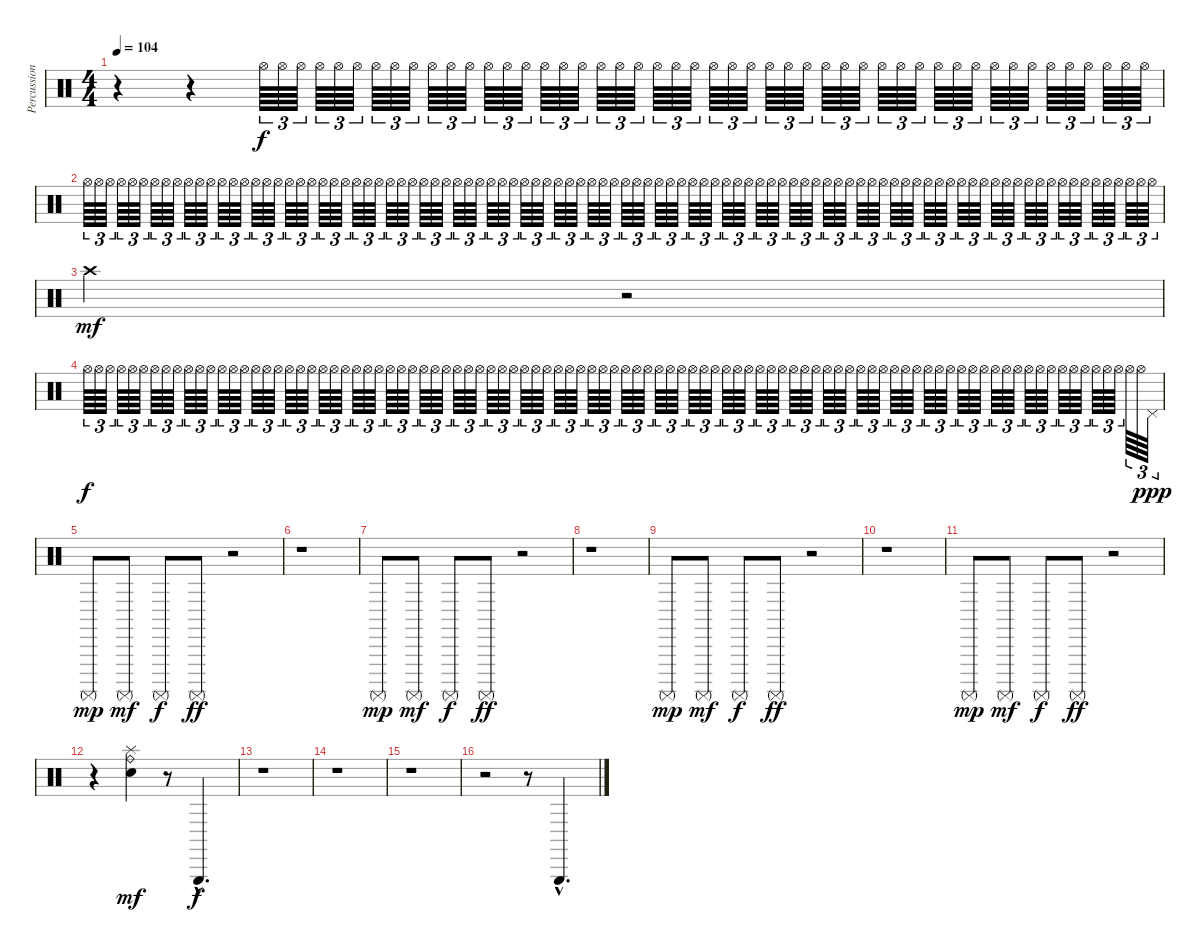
\track ("Percussion" "Percussion") {instrument percussion}
\staff {score}
\articulation defaults
\ts (4 4)
\tempo 104
\clef neutral
\ks c
r.4{dy f} r.4{volume 0} "Hi-Hat (open)".64{tu (3 2) volume 6} "Hi-Hat (open)".64{tu (3 2)} "Hi-Hat (open)".64{tu (3 2)} "Hi-Hat (open)".64{tu (3 2)} "Hi-Hat (open)".64{tu (3 2)} "Hi-Hat (open)".64{tu (3 2)} "Hi-Hat (open)".64{tu (3 2)} "Hi-Hat (open)".64{tu (3 2)} "Hi-Hat (open)".64{tu (3 2)} "Hi-Hat (open)".64{tu (3 2)} "Hi-Hat (open)".64{tu (3 2)} "Hi-Hat (open)".64{tu (3 2)} "Hi-Hat (open)".64{tu (3 2)} "Hi-Hat (open)".64{tu (3 2)} "Hi-Hat (open)".64{tu (3 2)} "Hi-Hat (open)".64{tu (3 2)} "Hi-Hat (open)".64{tu (3 2)} "Hi-Hat (open)".64{tu (3 2)} "Hi-Hat (open)".64{tu (3 2)} "Hi-Hat (open)".64{tu (3 2)} "Hi-Hat (open)".64{tu (3 2)} "Hi-Hat (open)".64{tu (3 2)} "Hi-Hat (open)".64{tu (3 2)} "Hi-Hat (open)".64{tu (3 2)} "Hi-Hat (open)".64{tu (3 2)} "Hi-Hat (open)".64{tu (3 2)} "Hi-Hat (open)".64{tu (3 2)} "Hi-Hat (open)".64{tu (3 2)} "Hi-Hat (open)".64{tu (3 2)} "Hi-Hat (open)".64{tu (3 2)} "Hi-Hat (open)".64{tu (3 2)} "Hi-Hat (open)".64{tu (3 2)} "Hi-Hat (open)".64{tu (3 2)} "Hi-Hat (open)".64{tu (3 2)} "Hi-Hat (open)".64{tu (3 2)} "Hi-Hat (open)".64{tu (3 2)} "Hi-Hat (open)".64{tu (3 2)} "Hi-Hat (open)".64{tu (3 2)} "Hi-Hat (open)".64{tu (3 2)} "Hi-Hat (open)".64{tu (3 2)} "Hi-Hat (open)".64{tu (3 2)} "Hi-Hat (open)".64{tu (3 2)} "Hi-Hat (open)".64{tu (3 2)} "Hi-Hat (open)".64{tu (3 2)} "Hi-Hat (open)".64{tu (3 2)} "Hi-Hat (open)".64{tu (3 2)} "Hi-Hat (open)".64{tu (3 2)} "Hi-Hat (open)".64{tu (3 2)} |
"Hi-Hat (open)".64{tu (3 2)} "Hi-Hat (open)".64{tu (3 2)} "Hi-Hat (open)".64{tu (3 2)} "Hi-Hat (open)".64{tu (3 2)} "Hi-Hat (open)".64{tu (3 2)} "Hi-Hat (open)".64{tu (3 2)} "Hi-Hat (open)".64{tu (3 2)} "Hi-Hat (open)".64{tu (3 2)} "Hi-Hat (open)".64{tu (3 2)} "Hi-Hat (open)".64{tu (3 2)} "Hi-Hat (open)".64{tu (3 2)} "Hi-Hat (open)".64{tu (3 2)} "Hi-Hat (open)".64{tu (3 2)} "Hi-Hat (open)".64{tu (3 2)} "Hi-Hat (open)".64{tu (3 2)} "Hi-Hat (open)".64{tu (3 2)} "Hi-Hat (open)".64{tu (3 2)} "Hi-Hat (open)".64{tu (3 2)} "Hi-Hat (open)".64{tu (3 2)} "Hi-Hat (open)".64{tu (3 2)} "Hi-Hat (open)".64{tu (3 2)} "Hi-Hat (open)".64{tu (3 2)} "Hi-Hat (open)".64{tu (3 2)} "Hi-Hat (open)".64{tu (3 2)} "Hi-Hat (open)".64{tu (3 2)} "Hi-Hat (open)".64{tu (3 2)} "Hi-Hat (open)".64{tu (3 2)} "Hi-Hat (open)".64{tu (3 2)} "Hi-Hat (open)".64{tu (3 2)} "Hi-Hat (open)".64{tu (3 2)} "Hi-Hat (open)".64{tu (3 2)} "Hi-Hat (open)".64{tu (3 2)} "Hi-Hat (open)".64{tu (3 2)} "Hi-Hat (open)".64{tu (3 2)} "Hi-Hat (open)".64{tu (3 2)} "Hi-Hat (open)".64{tu (3 2)} "Hi-Hat (open)".64{tu (3 2)} "Hi-Hat (open)".64{tu (3 2)} "Hi-Hat (open)".64{tu (3 2)} "Hi-Hat (open)".64{tu (3 2)} "Hi-Hat (open)".64{tu (3 2)} "Hi-Hat (open)".64{tu (3 2)} "Hi-Hat (open)".64{tu (3 2)} "Hi-Hat (open)".64{tu (3 2)} "Hi-Hat (open)".64{tu (3 2)} "Hi-Hat (open)".64{tu (3 2)} "Hi-Hat (open)".64{tu (3 2)} "Hi-Hat (open)".64{tu (3 2)} "Hi-Hat (open)".64{tu (3 2)} "Hi-Hat (open)".64{tu (3 2)} "Hi-Hat (open)".64{tu (3 2)} "Hi-Hat (open)".64{tu (3 2)} "Hi-Hat (open)".64{tu (3 2)} "Hi-Hat (open)".64{tu (3 2)} "Hi-Hat (open)".64{tu (3 2)} "Hi-Hat (open)".64{tu (3 2)} "Hi-Hat (open)".64{tu (3 2)} "Hi-Hat (open)".64{tu (3 2)} "Hi-Hat (open)".64{tu (3 2)} "Hi-Hat (open)".64{tu (3 2)} "Hi-Hat (open)".64{tu (3 2)} "Hi-Hat (open)".64{tu (3 2)} "Hi-Hat (open)".64{tu (3 2)} "Hi-Hat (open)".64{tu (3 2)} "Hi-Hat (open)".64{tu (3 2)} "Hi-Hat (open)".64{tu (3 2)} "Hi-Hat (open)".64{tu (3 2)} "Hi-Hat (open)".64{tu (3 2)} "Hi-Hat (open)".64{tu (3 2)} "Hi-Hat (open)".64{tu (3 2)} "Hi-Hat (open)".64{tu (3 2)} "Hi-Hat (open)".64{tu (3 2)} "Hi-Hat (open)".64{tu (3 2)} "Hi-Hat (open)".64{tu (3 2)} "Hi-Hat (open)".64{tu (3 2)} "Hi-Hat (open)".64{tu (3 2)} "Hi-Hat (open)".64{tu (3 2)} "Hi-Hat (open)".64{tu (3 2)} "Hi-Hat (open)".64{tu (3 2)} "Hi-Hat (open)".64{tu (3 2)} "Hi-Hat (open)".64{tu (3 2)} "Hi-Hat (open)".64{tu (3 2)} "Hi-Hat (open)".64{tu (3 2)} "Hi-Hat (open)".64{tu (3 2)} "Hi-Hat (open)".64{tu (3 2)} "Hi-Hat (open)".64{tu (3 2)} "Hi-Hat (open)".64{tu (3 2)} "Hi-Hat (open)".64{tu (3 2)} "Hi-Hat (open)".64{tu (3 2)} "Hi-Hat (open)".64{tu (3 2)} "Hi-Hat (open)".64{tu (3 2)} "Hi-Hat (open)".64{tu (3 2)} "Hi-Hat (open)".64{tu (3 2)} "Hi-Hat (open)".64{tu (3 2)} "Hi-Hat (open)".64{tu (3 2)} "Hi-Hat (open)".64{tu (3 2)} |
"Crash high (hit)".2{dy mf volume 7} r.2{volume 0} |
"Hi-Hat (open)".64{tu (3 2) dy f volume 5} "Hi-Hat (open)".64{tu (3 2)} "Hi-Hat (open)".64{tu (3 2)} "Hi-Hat (open)".64{tu (3 2)} "Hi-Hat (open)".64{tu (3 2)} "Hi-Hat (open)".64{tu (3 2)} "Hi-Hat (open)".64{tu (3 2)} "Hi-Hat (open)".64{tu (3 2)} "Hi-Hat (open)".64{tu (3 2)} "Hi-Hat (open)".64{tu (3 2)} "Hi-Hat (open)".64{tu (3 2)} "Hi-Hat (open)".64{tu (3 2)} "Hi-Hat (open)".64{tu (3 2)} "Hi-Hat (open)".64{tu (3 2)} "Hi-Hat (open)".64{tu (3 2)} "Hi-Hat (open)".64{tu (3 2)} "Hi-Hat (open)".64{tu (3 2)} "Hi-Hat (open)".64{tu (3 2)} "Hi-Hat (open)".64{tu (3 2)} "Hi-Hat (open)".64{tu (3 2)} "Hi-Hat (open)".64{tu (3 2)} "Hi-Hat (open)".64{tu (3 2)} "Hi-Hat (open)".64{tu (3 2)} "Hi-Hat (open)".64{tu (3 2)} "Hi-Hat (open)".64{tu (3 2)} "Hi-Hat (open)".64{tu (3 2)} "Hi-Hat (open)".64{tu (3 2)} "Hi-Hat (open)".64{tu (3 2)} "Hi-Hat (open)".64{tu (3 2)} "Hi-Hat (open)".64{tu (3 2)} "Hi-Hat (open)".64{tu (3 2)} "Hi-Hat (open)".64{tu (3 2)} "Hi-Hat (open)".64{tu (3 2)} "Hi-Hat (open)".64{tu (3 2)} "Hi-Hat (open)".64{tu (3 2)} "Hi-Hat (open)".64{tu (3 2)} "Hi-Hat (open)".64{tu (3 2)} "Hi-Hat (open)".64{tu (3 2)} "Hi-Hat (open)".64{tu (3 2)} "Hi-Hat (open)".64{tu (3 2)} "Hi-Hat (open)".64{tu (3 2)} "Hi-Hat (open)".64{tu (3 2)} "Hi-Hat (open)".64{tu (3 2)} "Hi-Hat (open)".64{tu (3 2)} "Hi-Hat (open)".64{tu (3 2)} "Hi-Hat (open)".64{tu (3 2)} "Hi-Hat (open)".64{tu (3 2)} "Hi-Hat (open)".64{tu (3 2)} "Hi-Hat (open)".64{tu (3 2) volume 0} "Hi-Hat (open)".64{tu (3 2)} "Hi-Hat (open)".64{tu (3 2)} "Hi-Hat (open)".64{tu (3 2)} "Hi-Hat (open)".64{tu (3 2)} "Hi-Hat (open)".64{tu (3 2)} "Hi-Hat (open)".64{tu (3 2)} "Hi-Hat (open)".64{tu (3 2)} "Hi-Hat (open)".64{tu (3 2)} "Hi-Hat (open)".64{tu (3 2)} "Hi-Hat (open)".64{tu (3 2)} "Hi-Hat (open)".64{tu (3 2)} "Hi-Hat (open)".64{tu (3 2)} "Hi-Hat (open)".64{tu (3 2)} "Hi-Hat (open)".64{tu (3 2)} "Hi-Hat (open)".64{tu (3 2)} "Hi-Hat (open)".64{tu (3 2)} "Hi-Hat (open)".64{tu (3 2)} "Hi-Hat (open)".64{tu (3 2)} "Hi-Hat (open)".64{tu (3 2)} "Hi-Hat (open)".64{tu (3 2)} "Hi-Hat (open)".64{tu (3 2)} "Hi-Hat (open)".64{tu (3 2)} "Hi-Hat (open)".64{tu (3 2)} "Hi-Hat (open)".64{tu (3 2)} "Hi-Hat (open)".64{tu (3 2)} "Hi-Hat (open)".64{tu (3 2)} "Hi-Hat (open)".64{tu (3 2)} "Hi-Hat (open)".64{tu (3 2)} "Hi-Hat (open)".64{tu (3 2)} "Hi-Hat (open)".64{tu (3 2)} "Hi-Hat (open)".64{tu (3 2)} "Hi-Hat (open)".64{tu (3 2)} "Hi-Hat (open)".64{tu (3 2)} "Hi-Hat (open)".64{tu (3 2)} "Hi-Hat (open)".64{tu (3 2)} "Hi-Hat (open)".64{tu (3 2)} "Hi-Hat (open)".64{tu (3 2)} "Hi-Hat (open)".64{tu (3 2)} "Hi-Hat (open)".64{tu (3 2)} "Hi-Hat (open)".64{tu (3 2)} "Hi-Hat (open)".64{tu (3 2)} "Hi-Hat (open)".64{tu (3 2)} "Hi-Hat (open)".64{tu (3 2)} "Hi-Hat (open)".64{tu (3 2)} "Hi-Hat (open)".64{tu (3 2)} "Hi-Hat (open)".64{tu (3 2)} "Pedal Hi-Hat (hit)".64{tu (3 2) dy ppp} |
"Surdo (mute)".8{dy mp volume 7} "Surdo (mute)".8{dy mf} "Surdo (mute)".8{dy f} "Surdo (mute)".8{dy ff} r.2 |
r.1 |
"Surdo (mute)".8{dy mp} "Surdo (mute)".8{dy mf} "Surdo (mute)".8{dy f} "Surdo (mute)".8{dy ff} r.2 |
r.1 |
"Surdo (mute)".8{dy mp} "Surdo (mute)".8{dy mf} "Surdo (mute)".8{dy f} "Surdo (mute)".8{dy ff} r.2 |
r.1 |
"Surdo (mute)".8{dy mp} "Surdo (mute)".8{dy mf} "Surdo (mute)".8{dy f} "Surdo (mute)".8{dy ff} r.2 |
r.4 ("Metronome (bell)" "Ride (bell)" "Splash (hit)").4{dy mf} r.8 "Triangle (hit)"{hac}.4{d dy f} |
r.1 |
r.1 |
r.1 |
r.2 r.8 "Triangle (hit)"{hac}.4{d}
